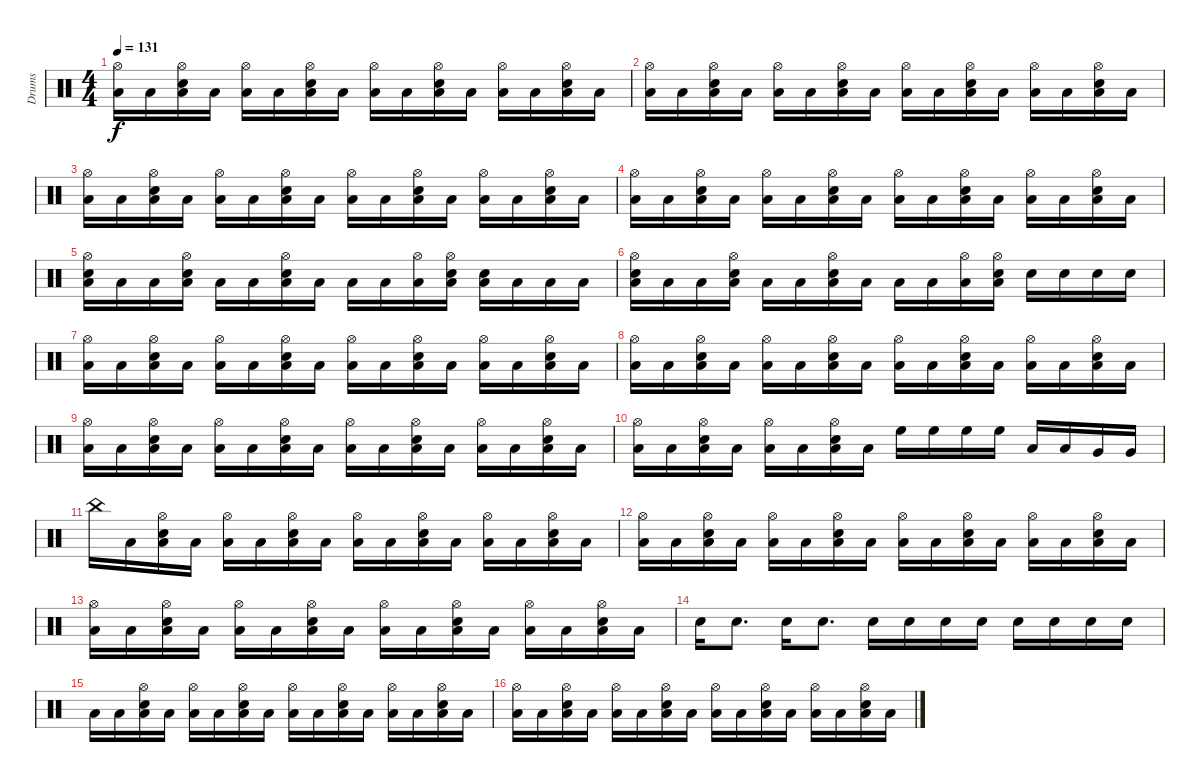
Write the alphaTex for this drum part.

\track ("Drums" "Drums") {instrument percussion}
\staff {score}
\articulation defaults
\ts (4 4)
\tempo 131
\clef neutral
\ks c
("Low Tom (hit)" "Hi-Hat (open)").16{dy f} "Low Tom (hit)".16 ("Low Tom (hit)" "Electric Snare (hit)" "Hi-Hat (open)").16 "Low Tom (hit)".16 ("Low Tom (hit)" "Hi-Hat (open)").16 "Low Tom (hit)".16 ("Low Tom (hit)" "Electric Snare (hit)" "Hi-Hat (open)").16 "Low Tom (hit)".16 ("Low Tom (hit)" "Hi-Hat (open)").16 "Low Tom (hit)".16 ("Low Tom (hit)" "Electric Snare (hit)" "Hi-Hat (open)").16 "Low Tom (hit)".16 ("Low Tom (hit)" "Hi-Hat (open)").16 "Low Tom (hit)".16 ("Low Tom (hit)" "Electric Snare (hit)" "Hi-Hat (open)").16 "Low Tom (hit)".16 |
("Low Tom (hit)" "Hi-Hat (open)").16 "Low Tom (hit)".16 ("Low Tom (hit)" "Electric Snare (hit)" "Hi-Hat (open)").16 "Low Tom (hit)".16 ("Low Tom (hit)" "Hi-Hat (open)").16 "Low Tom (hit)".16 ("Low Tom (hit)" "Electric Snare (hit)" "Hi-Hat (open)").16 "Low Tom (hit)".16 ("Low Tom (hit)" "Hi-Hat (open)").16 "Low Tom (hit)".16 ("Low Tom (hit)" "Electric Snare (hit)" "Hi-Hat (open)").16 "Low Tom (hit)".16 ("Low Tom (hit)" "Hi-Hat (open)").16 "Low Tom (hit)".16 ("Low Tom (hit)" "Electric Snare (hit)" "Hi-Hat (open)").16 "Low Tom (hit)".16 |
("Low Tom (hit)" "Hi-Hat (open)").16 "Low Tom (hit)".16 ("Low Tom (hit)" "Electric Snare (hit)" "Hi-Hat (open)").16 "Low Tom (hit)".16 ("Low Tom (hit)" "Hi-Hat (open)").16 "Low Tom (hit)".16 ("Low Tom (hit)" "Electric Snare (hit)" "Hi-Hat (open)").16 "Low Tom (hit)".16 ("Low Tom (hit)" "Hi-Hat (open)").16 "Low Tom (hit)".16 ("Low Tom (hit)" "Electric Snare (hit)" "Hi-Hat (open)").16 "Low Tom (hit)".16 ("Low Tom (hit)" "Hi-Hat (open)").16 "Low Tom (hit)".16 ("Low Tom (hit)" "Electric Snare (hit)" "Hi-Hat (open)").16 "Low Tom (hit)".16 |
("Low Tom (hit)" "Hi-Hat (open)").16 "Low Tom (hit)".16 ("Low Tom (hit)" "Electric Snare (hit)" "Hi-Hat (open)").16 "Low Tom (hit)".16 ("Low Tom (hit)" "Hi-Hat (open)").16 "Low Tom (hit)".16 ("Low Tom (hit)" "Electric Snare (hit)" "Hi-Hat (open)").16 "Low Tom (hit)".16 ("Low Tom (hit)" "Hi-Hat (open)").16 "Low Tom (hit)".16 ("Low Tom (hit)" "Electric Snare (hit)" "Hi-Hat (open)").16 "Low Tom (hit)".16 ("Low Tom (hit)" "Hi-Hat (open)").16 "Low Tom (hit)".16 ("Low Tom (hit)" "Electric Snare (hit)" "Hi-Hat (open)").16 "Low Tom (hit)".16 |
("Low Tom (hit)" "Hi-Hat (open)" "Electric Snare (hit)").16 "Low Tom (hit)".16 "Low Tom (hit)".16 ("Low Tom (hit)" "Hi-Hat (open)" "Electric Snare (hit)").16 "Low Tom (hit)".16 "Low Tom (hit)".16 ("Low Tom (hit)" "Hi-Hat (open)" "Electric Snare (hit)").16 "Low Tom (hit)".16 "Low Tom (hit)".16 "Low Tom (hit)".16 ("Low Tom (hit)" "Hi-Hat (open)").16 ("Low Tom (hit)" "Hi-Hat (open)" "Electric Snare (hit)").16 ("Low Tom (hit)" "Electric Snare (hit)").16 "Low Tom (hit)".16 "Low Tom (hit)".16 "Low Tom (hit)".16 |
("Electric Snare (hit)" "Hi-Hat (open)" "Low Tom (hit)").16 "Low Tom (hit)".16 "Low Tom (hit)".16 ("Electric Snare (hit)" "Hi-Hat (open)" "Low Tom (hit)").16 "Low Tom (hit)".16 "Low Tom (hit)".16 ("Electric Snare (hit)" "Hi-Hat (open)" "Low Tom (hit)").16 "Low Tom (hit)".16 "Low Tom (hit)".16 "Low Tom (hit)".16 ("Hi-Hat (open)" "Low Tom (hit)").16 ("Electric Snare (hit)" "Hi-Hat (open)" "Low Tom (hit)").16 "Electric Snare (hit)".16 "Electric Snare (hit)".16 "Electric Snare (hit)".16 "Electric Snare (hit)".16 |
("Hi-Hat (open)" "Low Tom (hit)").16 "Low Tom (hit)".16 ("Hi-Hat (open)" "Electric Snare (hit)" "Low Tom (hit)").16 "Low Tom (hit)".16 ("Hi-Hat (open)" "Low Tom (hit)").16 "Low Tom (hit)".16 ("Hi-Hat (open)" "Electric Snare (hit)" "Low Tom (hit)").16 "Low Tom (hit)".16 ("Hi-Hat (open)" "Low Tom (hit)").16 "Low Tom (hit)".16 ("Hi-Hat (open)" "Electric Snare (hit)" "Low Tom (hit)").16 "Low Tom (hit)".16 ("Hi-Hat (open)" "Low Tom (hit)").16 "Low Tom (hit)".16 ("Hi-Hat (open)" "Electric Snare (hit)" "Low Tom (hit)").16 "Low Tom (hit)".16 |
("Hi-Hat (open)" "Low Tom (hit)").16 "Low Tom (hit)".16 ("Hi-Hat (open)" "Electric Snare (hit)" "Low Tom (hit)").16 "Low Tom (hit)".16 ("Hi-Hat (open)" "Low Tom (hit)").16 "Low Tom (hit)".16 ("Hi-Hat (open)" "Electric Snare (hit)" "Low Tom (hit)").16 "Low Tom (hit)".16 ("Hi-Hat (open)" "Low Tom (hit)").16 "Low Tom (hit)".16 ("Hi-Hat (open)" "Electric Snare (hit)" "Low Tom (hit)").16 "Low Tom (hit)".16 ("Hi-Hat (open)" "Low Tom (hit)").16 "Low Tom (hit)".16 ("Hi-Hat (open)" "Electric Snare (hit)" "Low Tom (hit)").16 "Low Tom (hit)".16 |
("Hi-Hat (open)" "Low Tom (hit)").16 "Low Tom (hit)".16 ("Hi-Hat (open)" "Electric Snare (hit)" "Low Tom (hit)").16 "Low Tom (hit)".16 ("Hi-Hat (open)" "Low Tom (hit)").16 "Low Tom (hit)".16 ("Hi-Hat (open)" "Electric Snare (hit)" "Low Tom (hit)").16 "Low Tom (hit)".16 ("Hi-Hat (open)" "Low Tom (hit)").16 "Low Tom (hit)".16 ("Hi-Hat (open)" "Electric Snare (hit)" "Low Tom (hit)").16 "Low Tom (hit)".16 ("Hi-Hat (open)" "Low Tom (hit)").16 "Low Tom (hit)".16 ("Hi-Hat (open)" "Electric Snare (hit)" "Low Tom (hit)").16 "Low Tom (hit)".16 |
("Hi-Hat (open)" "Low Tom (hit)").16 "Low Tom (hit)".16 ("Hi-Hat (open)" "Electric Snare (hit)" "Low Tom (hit)").16 "Low Tom (hit)".16 ("Hi-Hat (open)" "Low Tom (hit)").16 "Low Tom (hit)".16 ("Hi-Hat (open)" "Electric Snare (hit)" "Low Tom (hit)").16 "Low Tom (hit)".16 "High Floor Tom (hit)".16 "High Floor Tom (hit)".16 "High Floor Tom (hit)".16 "High Floor Tom (hit)".16 "Low Tom (hit)".16 "Low Tom (hit)".16 "Very Low Tom (hit)".16 "Very Low Tom (hit)".16 |
"China (hit)".16 "Low Tom (hit)".16 ("Hi-Hat (open)" "Electric Snare (hit)" "Low Tom (hit)").16 "Low Tom (hit)".16 ("Hi-Hat (open)" "Low Tom (hit)").16 "Low Tom (hit)".16 ("Hi-Hat (open)" "Electric Snare (hit)" "Low Tom (hit)").16 "Low Tom (hit)".16 ("Hi-Hat (open)" "Low Tom (hit)").16 "Low Tom (hit)".16 ("Hi-Hat (open)" "Electric Snare (hit)" "Low Tom (hit)").16 "Low Tom (hit)".16 ("Hi-Hat (open)" "Low Tom (hit)").16 "Low Tom (hit)".16 ("Hi-Hat (open)" "Electric Snare (hit)" "Low Tom (hit)").16 "Low Tom (hit)".16 |
("Hi-Hat (open)" "Low Tom (hit)").16 "Low Tom (hit)".16 ("Hi-Hat (open)" "Electric Snare (hit)" "Low Tom (hit)").16 "Low Tom (hit)".16 ("Hi-Hat (open)" "Low Tom (hit)").16 "Low Tom (hit)".16 ("Hi-Hat (open)" "Electric Snare (hit)" "Low Tom (hit)").16 "Low Tom (hit)".16 ("Hi-Hat (open)" "Low Tom (hit)").16 "Low Tom (hit)".16 ("Hi-Hat (open)" "Electric Snare (hit)" "Low Tom (hit)").16 "Low Tom (hit)".16 ("Hi-Hat (open)" "Low Tom (hit)").16 "Low Tom (hit)".16 ("Hi-Hat (open)" "Electric Snare (hit)" "Low Tom (hit)").16 "Low Tom (hit)".16 |
("Hi-Hat (open)" "Low Tom (hit)").16 "Low Tom (hit)".16 ("Hi-Hat (open)" "Electric Snare (hit)" "Low Tom (hit)").16 "Low Tom (hit)".16 ("Hi-Hat (open)" "Low Tom (hit)").16 "Low Tom (hit)".16 ("Hi-Hat (open)" "Electric Snare (hit)" "Low Tom (hit)").16 "Low Tom (hit)".16 ("Hi-Hat (open)" "Low Tom (hit)").16 "Low Tom (hit)".16 ("Hi-Hat (open)" "Electric Snare (hit)" "Low Tom (hit)").16 "Low Tom (hit)".16 ("Hi-Hat (open)" "Low Tom (hit)").16 "Low Tom (hit)".16 ("Hi-Hat (open)" "Electric Snare (hit)" "Low Tom (hit)").16 "Low Tom (hit)".16 |
"Electric Snare (hit)".16 "Electric Snare (hit)".8{d} "Electric Snare (hit)".16 "Electric Snare (hit)".8{d} "Electric Snare (hit)".16 "Electric Snare (hit)".16 "Electric Snare (hit)".16 "Electric Snare (hit)".16 "Electric Snare (hit)".16 "Electric Snare (hit)".16 "Electric Snare (hit)".16 "Electric Snare (hit)".16 |
"Low Tom (hit)".16 "Low Tom (hit)".16 ("Hi-Hat (open)" "Electric Snare (hit)" "Low Tom (hit)").16 "Low Tom (hit)".16 ("Hi-Hat (open)" "Low Tom (hit)").16 "Low Tom (hit)".16 ("Hi-Hat (open)" "Electric Snare (hit)" "Low Tom (hit)").16 "Low Tom (hit)".16 ("Hi-Hat (open)" "Low Tom (hit)").16 "Low Tom (hit)".16 ("Hi-Hat (open)" "Electric Snare (hit)" "Low Tom (hit)").16 "Low Tom (hit)".16 ("Hi-Hat (open)" "Low Tom (hit)").16 "Low Tom (hit)".16 ("Hi-Hat (open)" "Electric Snare (hit)" "Low Tom (hit)").16 "Low Tom (hit)".16 |
("Hi-Hat (open)" "Low Tom (hit)").16 "Low Tom (hit)".16 ("Hi-Hat (open)" "Electric Snare (hit)" "Low Tom (hit)").16 "Low Tom (hit)".16 ("Hi-Hat (open)" "Low Tom (hit)").16 "Low Tom (hit)".16 ("Hi-Hat (open)" "Electric Snare (hit)" "Low Tom (hit)").16 "Low Tom (hit)".16 ("Hi-Hat (open)" "Low Tom (hit)").16 "Low Tom (hit)".16 ("Hi-Hat (open)" "Electric Snare (hit)" "Low Tom (hit)").16 "Low Tom (hit)".16 ("Hi-Hat (open)" "Low Tom (hit)").16 "Low Tom (hit)".16 ("Hi-Hat (open)" "Electric Snare (hit)" "Low Tom (hit)").16 "Low Tom (hit)".16
